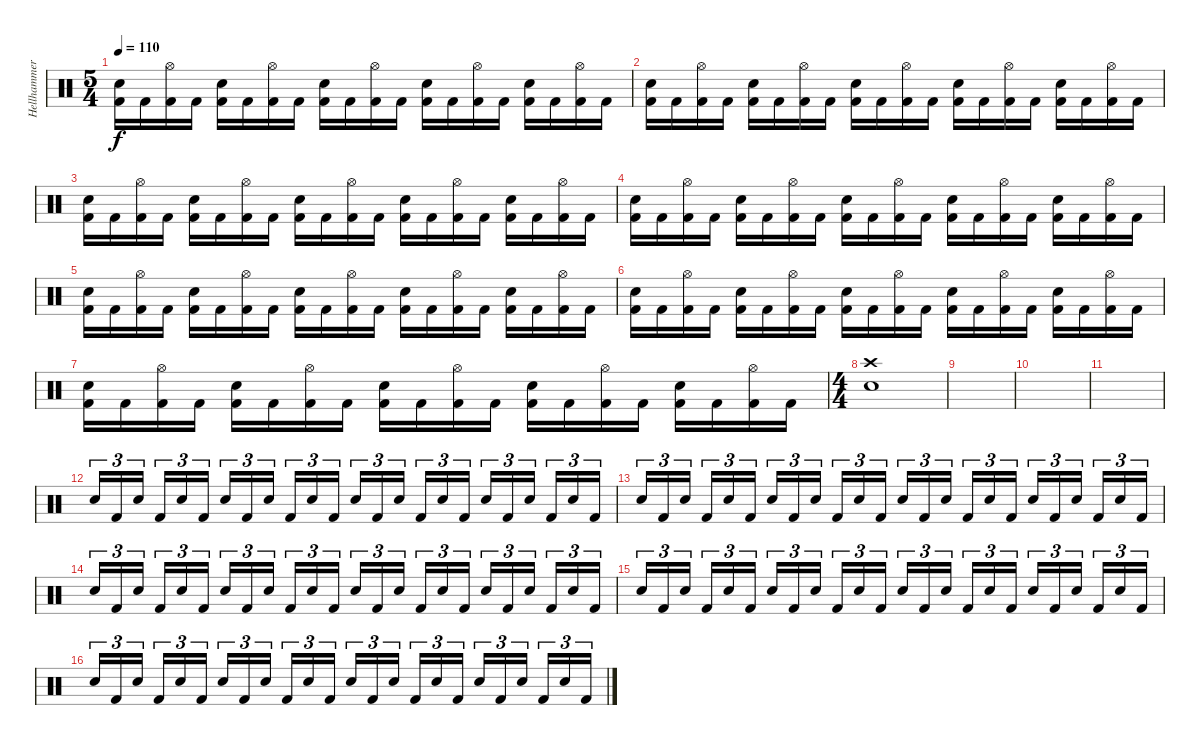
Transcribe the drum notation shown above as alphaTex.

\track ("Hellhammer" "Hellhammer") {instrument percussion}
\staff {score}
\articulation defaults
\ts (5 4)
\tempo 110
\clef neutral
\ks c
("Electric Snare (hit)" "Kick (hit) 2").16{dy f} "Kick (hit) 2".16 ("Hi-Hat (open)" "Kick (hit) 2").16 "Kick (hit) 2".16 ("Electric Snare (hit)" "Kick (hit) 2").16 "Kick (hit) 2".16 ("Hi-Hat (open)" "Kick (hit) 2").16 "Kick (hit) 2".16 ("Electric Snare (hit)" "Kick (hit) 2").16 "Kick (hit) 2".16 ("Hi-Hat (open)" "Kick (hit) 2").16 "Kick (hit) 2".16 ("Electric Snare (hit)" "Kick (hit) 2").16 "Kick (hit) 2".16 ("Hi-Hat (open)" "Kick (hit) 2").16 "Kick (hit) 2".16 ("Electric Snare (hit)" "Kick (hit) 2").16 "Kick (hit) 2".16 ("Hi-Hat (open)" "Kick (hit) 2").16 "Kick (hit) 2".16 |
("Electric Snare (hit)" "Kick (hit) 2").16 "Kick (hit) 2".16 ("Hi-Hat (open)" "Kick (hit) 2").16 "Kick (hit) 2".16 ("Electric Snare (hit)" "Kick (hit) 2").16 "Kick (hit) 2".16 ("Hi-Hat (open)" "Kick (hit) 2").16 "Kick (hit) 2".16 ("Electric Snare (hit)" "Kick (hit) 2").16 "Kick (hit) 2".16 ("Hi-Hat (open)" "Kick (hit) 2").16 "Kick (hit) 2".16 ("Electric Snare (hit)" "Kick (hit) 2").16 "Kick (hit) 2".16 ("Hi-Hat (open)" "Kick (hit) 2").16 "Kick (hit) 2".16 ("Electric Snare (hit)" "Kick (hit) 2").16 "Kick (hit) 2".16 ("Hi-Hat (open)" "Kick (hit) 2").16 "Kick (hit) 2".16 |
("Electric Snare (hit)" "Kick (hit) 2").16 "Kick (hit) 2".16 ("Hi-Hat (open)" "Kick (hit) 2").16 "Kick (hit) 2".16 ("Electric Snare (hit)" "Kick (hit) 2").16 "Kick (hit) 2".16 ("Hi-Hat (open)" "Kick (hit) 2").16 "Kick (hit) 2".16 ("Electric Snare (hit)" "Kick (hit) 2").16 "Kick (hit) 2".16 ("Hi-Hat (open)" "Kick (hit) 2").16 "Kick (hit) 2".16 ("Electric Snare (hit)" "Kick (hit) 2").16 "Kick (hit) 2".16 ("Hi-Hat (open)" "Kick (hit) 2").16 "Kick (hit) 2".16 ("Electric Snare (hit)" "Kick (hit) 2").16 "Kick (hit) 2".16 ("Hi-Hat (open)" "Kick (hit) 2").16 "Kick (hit) 2".16 |
("Electric Snare (hit)" "Kick (hit) 2").16 "Kick (hit) 2".16 ("Hi-Hat (open)" "Kick (hit) 2").16 "Kick (hit) 2".16 ("Electric Snare (hit)" "Kick (hit) 2").16 "Kick (hit) 2".16 ("Hi-Hat (open)" "Kick (hit) 2").16 "Kick (hit) 2".16 ("Electric Snare (hit)" "Kick (hit) 2").16 "Kick (hit) 2".16 ("Hi-Hat (open)" "Kick (hit) 2").16 "Kick (hit) 2".16 ("Electric Snare (hit)" "Kick (hit) 2").16 "Kick (hit) 2".16 ("Hi-Hat (open)" "Kick (hit) 2").16 "Kick (hit) 2".16 ("Electric Snare (hit)" "Kick (hit) 2").16 "Kick (hit) 2".16 ("Hi-Hat (open)" "Kick (hit) 2").16 "Kick (hit) 2".16 |
("Electric Snare (hit)" "Kick (hit) 2").16 "Kick (hit) 2".16 ("Hi-Hat (open)" "Kick (hit) 2").16 "Kick (hit) 2".16 ("Electric Snare (hit)" "Kick (hit) 2").16 "Kick (hit) 2".16 ("Hi-Hat (open)" "Kick (hit) 2").16 "Kick (hit) 2".16 ("Electric Snare (hit)" "Kick (hit) 2").16 "Kick (hit) 2".16 ("Hi-Hat (open)" "Kick (hit) 2").16 "Kick (hit) 2".16 ("Electric Snare (hit)" "Kick (hit) 2").16 "Kick (hit) 2".16 ("Hi-Hat (open)" "Kick (hit) 2").16 "Kick (hit) 2".16 ("Electric Snare (hit)" "Kick (hit) 2").16 "Kick (hit) 2".16 ("Hi-Hat (open)" "Kick (hit) 2").16 "Kick (hit) 2".16 |
("Electric Snare (hit)" "Kick (hit) 2").16 "Kick (hit) 2".16 ("Hi-Hat (open)" "Kick (hit) 2").16 "Kick (hit) 2".16 ("Electric Snare (hit)" "Kick (hit) 2").16 "Kick (hit) 2".16 ("Hi-Hat (open)" "Kick (hit) 2").16 "Kick (hit) 2".16 ("Electric Snare (hit)" "Kick (hit) 2").16 "Kick (hit) 2".16 ("Hi-Hat (open)" "Kick (hit) 2").16 "Kick (hit) 2".16 ("Electric Snare (hit)" "Kick (hit) 2").16 "Kick (hit) 2".16 ("Hi-Hat (open)" "Kick (hit) 2").16 "Kick (hit) 2".16 ("Electric Snare (hit)" "Kick (hit) 2").16 "Kick (hit) 2".16 ("Hi-Hat (open)" "Kick (hit) 2").16 "Kick (hit) 2".16 |
("Electric Snare (hit)" "Kick (hit) 2").16 "Kick (hit) 2".16 ("Hi-Hat (open)" "Kick (hit) 2").16 "Kick (hit) 2".16 ("Electric Snare (hit)" "Kick (hit) 2").16 "Kick (hit) 2".16 ("Hi-Hat (open)" "Kick (hit) 2").16 "Kick (hit) 2".16 ("Electric Snare (hit)" "Kick (hit) 2").16 "Kick (hit) 2".16 ("Hi-Hat (open)" "Kick (hit) 2").16 "Kick (hit) 2".16 ("Electric Snare (hit)" "Kick (hit) 2").16 "Kick (hit) 2".16 ("Hi-Hat (open)" "Kick (hit) 2").16 "Kick (hit) 2".16 ("Electric Snare (hit)" "Kick (hit) 2").16 "Kick (hit) 2".16 ("Hi-Hat (open)" "Kick (hit) 2").16 "Kick (hit) 2".16 |
\ts (4 4)
("Crash high (hit)" "Electric Snare (hit)").1 |
|
|
|
"Electric Snare (hit)".16{tu (3 2)} "Kick (hit) 2".16{tu (3 2)} "Electric Snare (hit)".16{tu (3 2)} "Kick (hit) 2".16{tu (3 2)} "Electric Snare (hit)".16{tu (3 2)} "Kick (hit) 2".16{tu (3 2)} "Electric Snare (hit)".16{tu (3 2)} "Kick (hit) 2".16{tu (3 2)} "Electric Snare (hit)".16{tu (3 2)} "Kick (hit) 2".16{tu (3 2)} "Electric Snare (hit)".16{tu (3 2)} "Kick (hit) 2".16{tu (3 2)} "Electric Snare (hit)".16{tu (3 2)} "Kick (hit) 2".16{tu (3 2)} "Electric Snare (hit)".16{tu (3 2)} "Kick (hit) 2".16{tu (3 2)} "Electric Snare (hit)".16{tu (3 2)} "Kick (hit) 2".16{tu (3 2)} "Electric Snare (hit)".16{tu (3 2)} "Kick (hit) 2".16{tu (3 2)} "Electric Snare (hit)".16{tu (3 2)} "Kick (hit) 2".16{tu (3 2)} "Electric Snare (hit)".16{tu (3 2)} "Kick (hit) 2".16{tu (3 2)} |
"Electric Snare (hit)".16{tu (3 2)} "Kick (hit) 2".16{tu (3 2)} "Electric Snare (hit)".16{tu (3 2)} "Kick (hit) 2".16{tu (3 2)} "Electric Snare (hit)".16{tu (3 2)} "Kick (hit) 2".16{tu (3 2)} "Electric Snare (hit)".16{tu (3 2)} "Kick (hit) 2".16{tu (3 2)} "Electric Snare (hit)".16{tu (3 2)} "Kick (hit) 2".16{tu (3 2)} "Electric Snare (hit)".16{tu (3 2)} "Kick (hit) 2".16{tu (3 2)} "Electric Snare (hit)".16{tu (3 2)} "Kick (hit) 2".16{tu (3 2)} "Electric Snare (hit)".16{tu (3 2)} "Kick (hit) 2".16{tu (3 2)} "Electric Snare (hit)".16{tu (3 2)} "Kick (hit) 2".16{tu (3 2)} "Electric Snare (hit)".16{tu (3 2)} "Kick (hit) 2".16{tu (3 2)} "Electric Snare (hit)".16{tu (3 2)} "Kick (hit) 2".16{tu (3 2)} "Electric Snare (hit)".16{tu (3 2)} "Kick (hit) 2".16{tu (3 2)} |
"Electric Snare (hit)".16{tu (3 2)} "Kick (hit) 2".16{tu (3 2)} "Electric Snare (hit)".16{tu (3 2)} "Kick (hit) 2".16{tu (3 2)} "Electric Snare (hit)".16{tu (3 2)} "Kick (hit) 2".16{tu (3 2)} "Electric Snare (hit)".16{tu (3 2)} "Kick (hit) 2".16{tu (3 2)} "Electric Snare (hit)".16{tu (3 2)} "Kick (hit) 2".16{tu (3 2)} "Electric Snare (hit)".16{tu (3 2)} "Kick (hit) 2".16{tu (3 2)} "Electric Snare (hit)".16{tu (3 2)} "Kick (hit) 2".16{tu (3 2)} "Electric Snare (hit)".16{tu (3 2)} "Kick (hit) 2".16{tu (3 2)} "Electric Snare (hit)".16{tu (3 2)} "Kick (hit) 2".16{tu (3 2)} "Electric Snare (hit)".16{tu (3 2)} "Kick (hit) 2".16{tu (3 2)} "Electric Snare (hit)".16{tu (3 2)} "Kick (hit) 2".16{tu (3 2)} "Electric Snare (hit)".16{tu (3 2)} "Kick (hit) 2".16{tu (3 2)} |
"Electric Snare (hit)".16{tu (3 2)} "Kick (hit) 2".16{tu (3 2)} "Electric Snare (hit)".16{tu (3 2)} "Kick (hit) 2".16{tu (3 2)} "Electric Snare (hit)".16{tu (3 2)} "Kick (hit) 2".16{tu (3 2)} "Electric Snare (hit)".16{tu (3 2)} "Kick (hit) 2".16{tu (3 2)} "Electric Snare (hit)".16{tu (3 2)} "Kick (hit) 2".16{tu (3 2)} "Electric Snare (hit)".16{tu (3 2)} "Kick (hit) 2".16{tu (3 2)} "Electric Snare (hit)".16{tu (3 2)} "Kick (hit) 2".16{tu (3 2)} "Electric Snare (hit)".16{tu (3 2)} "Kick (hit) 2".16{tu (3 2)} "Electric Snare (hit)".16{tu (3 2)} "Kick (hit) 2".16{tu (3 2)} "Electric Snare (hit)".16{tu (3 2)} "Kick (hit) 2".16{tu (3 2)} "Electric Snare (hit)".16{tu (3 2)} "Kick (hit) 2".16{tu (3 2)} "Electric Snare (hit)".16{tu (3 2)} "Kick (hit) 2".16{tu (3 2)} |
"Electric Snare (hit)".16{tu (3 2)} "Kick (hit) 2".16{tu (3 2)} "Electric Snare (hit)".16{tu (3 2)} "Kick (hit) 2".16{tu (3 2)} "Electric Snare (hit)".16{tu (3 2)} "Kick (hit) 2".16{tu (3 2)} "Electric Snare (hit)".16{tu (3 2)} "Kick (hit) 2".16{tu (3 2)} "Electric Snare (hit)".16{tu (3 2)} "Kick (hit) 2".16{tu (3 2)} "Electric Snare (hit)".16{tu (3 2)} "Kick (hit) 2".16{tu (3 2)} "Electric Snare (hit)".16{tu (3 2)} "Kick (hit) 2".16{tu (3 2)} "Electric Snare (hit)".16{tu (3 2)} "Kick (hit) 2".16{tu (3 2)} "Electric Snare (hit)".16{tu (3 2)} "Kick (hit) 2".16{tu (3 2)} "Electric Snare (hit)".16{tu (3 2)} "Kick (hit) 2".16{tu (3 2)} "Electric Snare (hit)".16{tu (3 2)} "Kick (hit) 2".16{tu (3 2)} "Electric Snare (hit)".16{tu (3 2)} "Kick (hit) 2".16{tu (3 2)}
